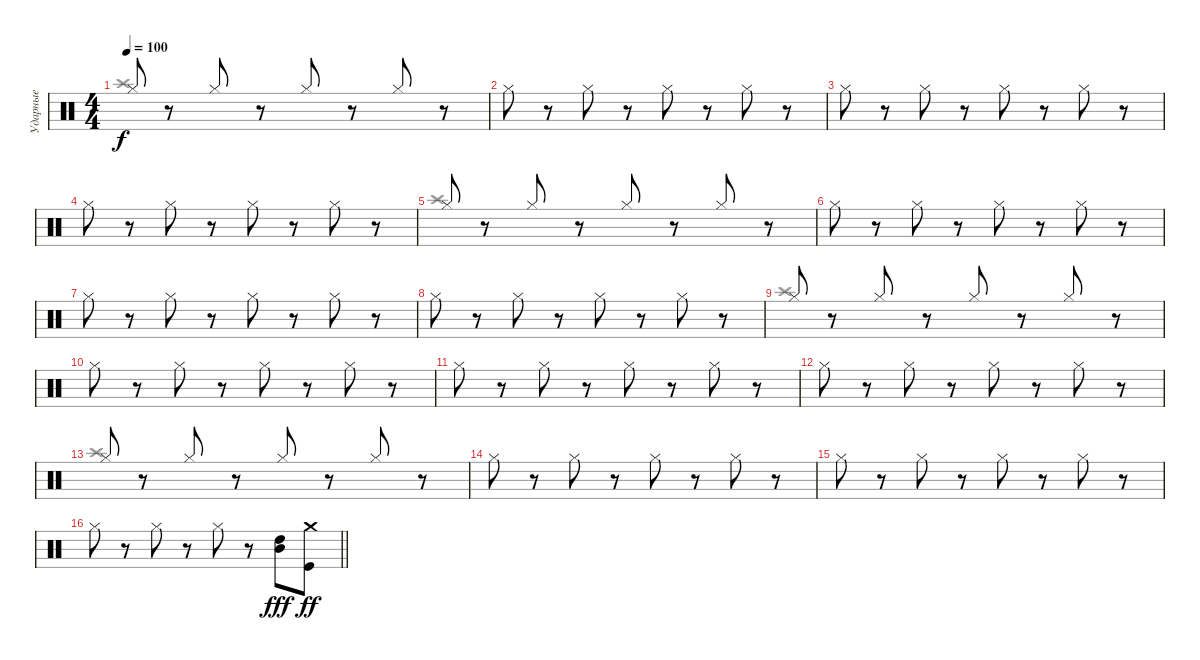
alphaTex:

\track ("Ударные" "Ударные") {instrument percussion}
\staff {score}
\articulation defaults
\voice
\ts (4 4)
\tempo 100
\clef neutral
\ks c "Hi-Hat (closed)".8{dy f}
r.8 "Hi-Hat (closed)".8 r.8 "Hi-Hat (closed)".8 r.8 "Hi-Hat (closed)".8 r.8 |
"Hi-Hat (closed)".8 r.8 "Hi-Hat (closed)".8 r.8 "Hi-Hat (closed)".8 r.8 "Hi-Hat (closed)".8 r.8 |
"Hi-Hat (closed)".8 r.8 "Hi-Hat (closed)".8 r.8 "Hi-Hat (closed)".8 r.8 "Hi-Hat (closed)".8 r.8 |
"Hi-Hat (closed)".8 r.8 "Hi-Hat (closed)".8 r.8 "Hi-Hat (closed)".8 r.8 "Hi-Hat (closed)".8 r.8 |
"Hi-Hat (closed)".8 r.8 "Hi-Hat (closed)".8 r.8 "Hi-Hat (closed)".8 r.8 "Hi-Hat (closed)".8 r.8 |
"Hi-Hat (closed)".8 r.8 "Hi-Hat (closed)".8 r.8 "Hi-Hat (closed)".8 r.8 "Hi-Hat (closed)".8 r.8 |
"Hi-Hat (closed)".8 r.8 "Hi-Hat (closed)".8 r.8 "Hi-Hat (closed)".8 r.8 "Hi-Hat (closed)".8 r.8 |
"Hi-Hat (closed)".8 r.8 "Hi-Hat (closed)".8 r.8 "Hi-Hat (closed)".8 r.8 "Hi-Hat (closed)".8 r.8 |
"Hi-Hat (closed)".8 r.8 "Hi-Hat (closed)".8 r.8 "Hi-Hat (closed)".8 r.8 "Hi-Hat (closed)".8 r.8 |
"Hi-Hat (closed)".8 r.8 "Hi-Hat (closed)".8 r.8 "Hi-Hat (closed)".8 r.8 "Hi-Hat (closed)".8 r.8 |
"Hi-Hat (closed)".8 r.8 "Hi-Hat (closed)".8 r.8 "Hi-Hat (closed)".8 r.8 "Hi-Hat (closed)".8 r.8 |
"Hi-Hat (closed)".8 r.8 "Hi-Hat (closed)".8 r.8 "Hi-Hat (closed)".8 r.8 "Hi-Hat (closed)".8 r.8 |
"Hi-Hat (closed)".8 r.8 "Hi-Hat (closed)".8 r.8 "Hi-Hat (closed)".8 r.8 "Hi-Hat (closed)".8 r.8 |
"Hi-Hat (closed)".8 r.8 "Hi-Hat (closed)".8 r.8 "Hi-Hat (closed)".8 r.8 "Hi-Hat (closed)".8 r.8 |
"Hi-Hat (closed)".8 r.8 "Hi-Hat (closed)".8 r.8 "Hi-Hat (closed)".8 r.8 "Hi-Hat (closed)".8 r.8 |
\barLineRight lightlight "Hi-Hat (closed)".8
r.8 "Hi-Hat (closed)".8 r.8 "Hi-Hat (closed)".8 r.8 ("Mid Tom (hit)" "High Tom (hit)").8{dy fff} ("Crash medium (hit)" "Kick (hit)").8{dy ff}
\voice
\clef neutral
\ottava regular
\simile none
\ks c "Crash high (hit)".1{dy f}
|
|
|
|
"Crash high (hit)".1 |
|
|
|
"Crash high (hit)".1 |
|
|
|
"Crash high (hit)".1 |
|
|
\barLineRight lightlight
